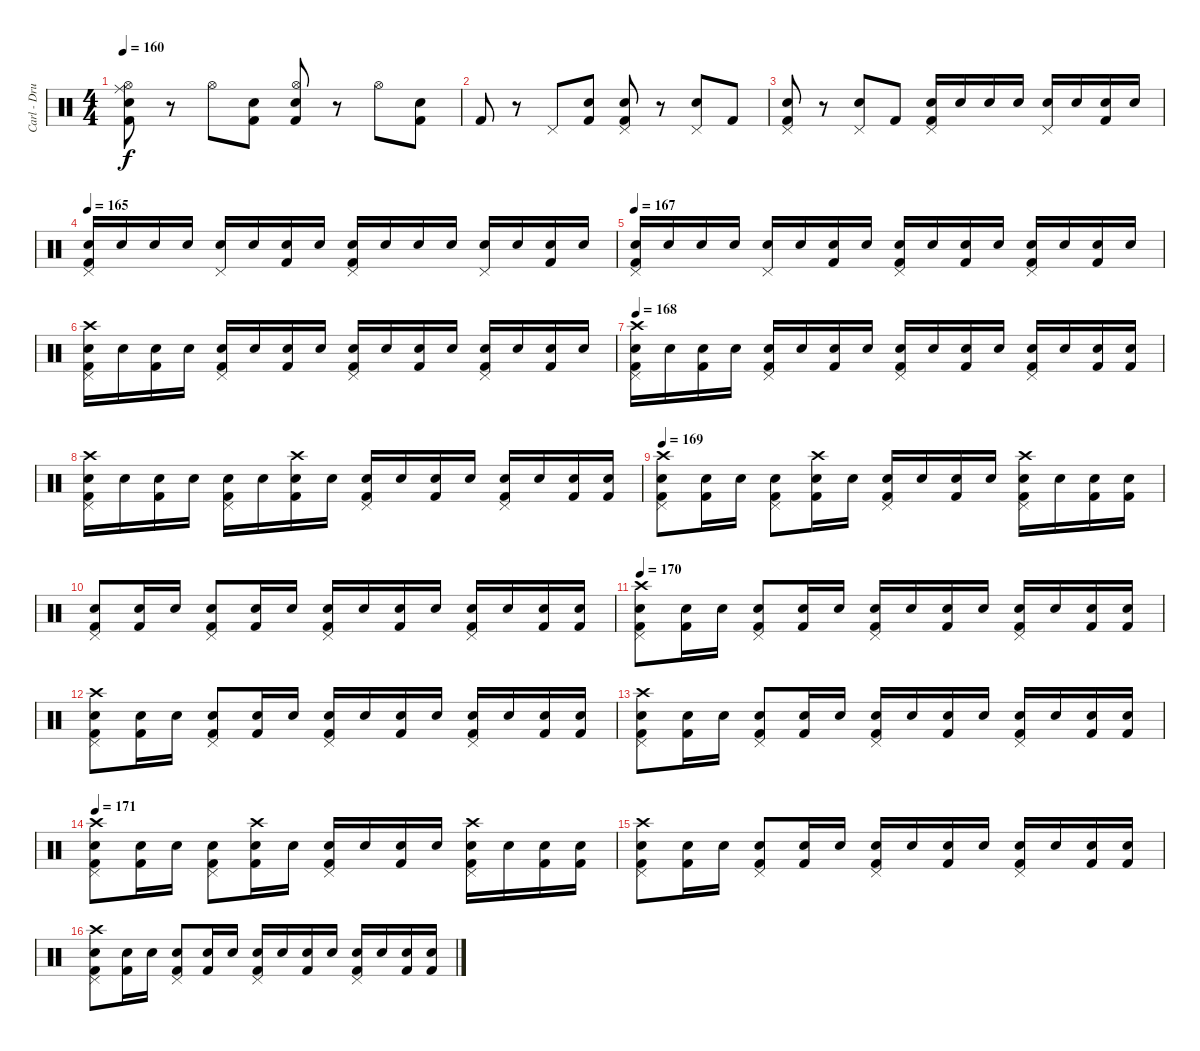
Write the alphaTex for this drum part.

\track ("Carl - Drums" "Carl - Dru") {instrument percussion}
\staff {score}
\articulation defaults
\ts (4 4)
\tempo 158
\tempo 160
\clef neutral
\ks c
("Electric Snare (hit)" "Hi-Hat (open)" "Kick (hit) 2" "Ride (middle)").8{dy f} r.8 "Hi-Hat (open)".8 ("Electric Snare (hit)" "Kick (hit) 2").8 ("Electric Snare (hit)" "Hi-Hat (open)" "Kick (hit) 2").8 r.8 "Hi-Hat (open)".8 ("Electric Snare (hit)" "Kick (hit) 2").8 |
"Kick (hit) 2".8 r.8 "Pedal Hi-Hat (hit)".8 ("Electric Snare (hit)" "Kick (hit) 2").8 ("Electric Snare (hit)" "Pedal Hi-Hat (hit)" "Kick (hit) 2").8 r.8 ("Electric Snare (hit)" "Pedal Hi-Hat (hit)").8 "Kick (hit) 2".8 |
("Electric Snare (hit)" "Pedal Hi-Hat (hit)" "Kick (hit) 2").8 r.8 ("Electric Snare (hit)" "Pedal Hi-Hat (hit)").8 "Kick (hit) 2".8 ("Electric Snare (hit)" "Pedal Hi-Hat (hit)" "Kick (hit) 2").16 "Electric Snare (hit)".16 "Electric Snare (hit)".16 "Electric Snare (hit)".16 ("Electric Snare (hit)" "Pedal Hi-Hat (hit)").16 "Electric Snare (hit)".16 ("Electric Snare (hit)" "Kick (hit) 2").16 "Electric Snare (hit)".16 |
\tempo 166
\tempo 165
("Electric Snare (hit)" "Pedal Hi-Hat (hit)" "Kick (hit) 2").16 "Electric Snare (hit)".16 "Electric Snare (hit)".16 "Electric Snare (hit)".16 ("Electric Snare (hit)" "Pedal Hi-Hat (hit)").16 "Electric Snare (hit)".16 ("Electric Snare (hit)" "Kick (hit) 2").16 "Electric Snare (hit)".16 ("Electric Snare (hit)" "Pedal Hi-Hat (hit)" "Kick (hit) 2").16 "Electric Snare (hit)".16 "Electric Snare (hit)".16 "Electric Snare (hit)".16 ("Electric Snare (hit)" "Pedal Hi-Hat (hit)").16 "Electric Snare (hit)".16 ("Electric Snare (hit)" "Kick (hit) 2").16 "Electric Snare (hit)".16 |
\tempo 167
("Electric Snare (hit)" "Pedal Hi-Hat (hit)" "Kick (hit) 2").16 "Electric Snare (hit)".16 "Electric Snare (hit)".16 "Electric Snare (hit)".16 ("Electric Snare (hit)" "Pedal Hi-Hat (hit)").16 "Electric Snare (hit)".16 ("Electric Snare (hit)" "Kick (hit) 2").16 "Electric Snare (hit)".16 ("Electric Snare (hit)" "Pedal Hi-Hat (hit)" "Kick (hit) 2").16 "Electric Snare (hit)".16 ("Electric Snare (hit)" "Kick (hit) 2").16 "Electric Snare (hit)".16 ("Electric Snare (hit)" "Pedal Hi-Hat (hit)" "Kick (hit) 2").16 "Electric Snare (hit)".16 ("Electric Snare (hit)" "Kick (hit) 2").16 "Electric Snare (hit)".16 |
("Electric Snare (hit)" "Pedal Hi-Hat (hit)" "Kick (hit) 2" "Crash high (hit)").16 "Electric Snare (hit)".16 ("Electric Snare (hit)" "Kick (hit) 2").16 "Electric Snare (hit)".16 ("Electric Snare (hit)" "Pedal Hi-Hat (hit)" "Kick (hit) 2").16 "Electric Snare (hit)".16 ("Electric Snare (hit)" "Kick (hit) 2").16 "Electric Snare (hit)".16 ("Electric Snare (hit)" "Pedal Hi-Hat (hit)" "Kick (hit) 2").16 "Electric Snare (hit)".16 ("Electric Snare (hit)" "Kick (hit) 2").16 "Electric Snare (hit)".16 ("Electric Snare (hit)" "Pedal Hi-Hat (hit)" "Kick (hit) 2").16 "Electric Snare (hit)".16 ("Electric Snare (hit)" "Kick (hit) 2").16 "Electric Snare (hit)".16 |
\tempo 168
("Electric Snare (hit)" "Pedal Hi-Hat (hit)" "Kick (hit) 2" "Crash high (hit)").16 "Electric Snare (hit)".16 ("Electric Snare (hit)" "Kick (hit) 2").16 "Electric Snare (hit)".16 ("Electric Snare (hit)" "Pedal Hi-Hat (hit)" "Kick (hit) 2").16 "Electric Snare (hit)".16 ("Electric Snare (hit)" "Kick (hit) 2").16 "Electric Snare (hit)".16 ("Electric Snare (hit)" "Pedal Hi-Hat (hit)" "Kick (hit) 2").16 "Electric Snare (hit)".16 ("Electric Snare (hit)" "Kick (hit) 2").16 "Electric Snare (hit)".16 ("Electric Snare (hit)" "Pedal Hi-Hat (hit)" "Kick (hit) 2").16 "Electric Snare (hit)".16 ("Electric Snare (hit)" "Kick (hit) 2").16 ("Electric Snare (hit)" "Kick (hit) 2").16 |
("Electric Snare (hit)" "Pedal Hi-Hat (hit)" "Kick (hit) 2" "Crash high (hit)").16 "Electric Snare (hit)".16 ("Electric Snare (hit)" "Kick (hit) 2").16 "Electric Snare (hit)".16 ("Electric Snare (hit)" "Pedal Hi-Hat (hit)" "Kick (hit) 2").16 "Electric Snare (hit)".16 ("Electric Snare (hit)" "Kick (hit) 2" "Crash high (hit)").16 "Electric Snare (hit)".16 ("Electric Snare (hit)" "Pedal Hi-Hat (hit)" "Kick (hit) 2").16 "Electric Snare (hit)".16 ("Electric Snare (hit)" "Kick (hit) 2").16 "Electric Snare (hit)".16 ("Electric Snare (hit)" "Pedal Hi-Hat (hit)" "Kick (hit) 2").16 "Electric Snare (hit)".16 ("Electric Snare (hit)" "Kick (hit) 2").16 ("Electric Snare (hit)" "Kick (hit) 2").16 |
\tempo 169
("Electric Snare (hit)" "Pedal Hi-Hat (hit)" "Kick (hit) 2" "Crash high (hit)").8 ("Electric Snare (hit)" "Kick (hit) 2").16 "Electric Snare (hit)".16 ("Electric Snare (hit)" "Pedal Hi-Hat (hit)" "Kick (hit) 2").8 ("Electric Snare (hit)" "Kick (hit) 2" "Crash high (hit)").16 "Electric Snare (hit)".16 ("Electric Snare (hit)" "Pedal Hi-Hat (hit)" "Kick (hit) 2").16 "Electric Snare (hit)".16 ("Electric Snare (hit)" "Kick (hit) 2").16 "Electric Snare (hit)".16 ("Electric Snare (hit)" "Pedal Hi-Hat (hit)" "Kick (hit) 2" "Crash high (hit)").16 "Electric Snare (hit)".16 ("Electric Snare (hit)" "Kick (hit) 2").16 ("Electric Snare (hit)" "Kick (hit) 2").16 |
("Electric Snare (hit)" "Pedal Hi-Hat (hit)" "Kick (hit) 2").8 ("Electric Snare (hit)" "Kick (hit) 2").16 "Electric Snare (hit)".16 ("Electric Snare (hit)" "Pedal Hi-Hat (hit)" "Kick (hit) 2").8 ("Electric Snare (hit)" "Kick (hit) 2").16 "Electric Snare (hit)".16 ("Electric Snare (hit)" "Pedal Hi-Hat (hit)" "Kick (hit) 2").16 "Electric Snare (hit)".16 ("Electric Snare (hit)" "Kick (hit) 2").16 "Electric Snare (hit)".16 ("Electric Snare (hit)" "Pedal Hi-Hat (hit)" "Kick (hit) 2").16 "Electric Snare (hit)".16 ("Electric Snare (hit)" "Kick (hit) 2").16 ("Electric Snare (hit)" "Kick (hit) 2").16 |
\tempo 170
("Electric Snare (hit)" "Pedal Hi-Hat (hit)" "Kick (hit) 2" "Crash high (hit)").8 ("Electric Snare (hit)" "Kick (hit) 2").16 "Electric Snare (hit)".16 ("Electric Snare (hit)" "Pedal Hi-Hat (hit)" "Kick (hit) 2").8 ("Electric Snare (hit)" "Kick (hit) 2").16 "Electric Snare (hit)".16 ("Electric Snare (hit)" "Pedal Hi-Hat (hit)" "Kick (hit) 2").16 "Electric Snare (hit)".16 ("Electric Snare (hit)" "Kick (hit) 2").16 "Electric Snare (hit)".16 ("Electric Snare (hit)" "Pedal Hi-Hat (hit)" "Kick (hit) 2").16 "Electric Snare (hit)".16 ("Electric Snare (hit)" "Kick (hit) 2").16 ("Electric Snare (hit)" "Kick (hit) 2").16 |
("Electric Snare (hit)" "Pedal Hi-Hat (hit)" "Kick (hit) 2" "Crash high (hit)").8 ("Electric Snare (hit)" "Kick (hit) 2").16 "Electric Snare (hit)".16 ("Electric Snare (hit)" "Pedal Hi-Hat (hit)" "Kick (hit) 2").8 ("Electric Snare (hit)" "Kick (hit) 2").16 "Electric Snare (hit)".16 ("Electric Snare (hit)" "Pedal Hi-Hat (hit)" "Kick (hit) 2").16 "Electric Snare (hit)".16 ("Electric Snare (hit)" "Kick (hit) 2").16 "Electric Snare (hit)".16 ("Electric Snare (hit)" "Pedal Hi-Hat (hit)" "Kick (hit) 2").16 "Electric Snare (hit)".16 ("Electric Snare (hit)" "Kick (hit) 2").16 ("Electric Snare (hit)" "Kick (hit) 2").16 |
("Electric Snare (hit)" "Pedal Hi-Hat (hit)" "Kick (hit) 2" "Crash high (hit)").8 ("Electric Snare (hit)" "Kick (hit) 2").16 "Electric Snare (hit)".16 ("Electric Snare (hit)" "Pedal Hi-Hat (hit)" "Kick (hit) 2").8 ("Electric Snare (hit)" "Kick (hit) 2").16 "Electric Snare (hit)".16 ("Electric Snare (hit)" "Pedal Hi-Hat (hit)" "Kick (hit) 2").16 "Electric Snare (hit)".16 ("Electric Snare (hit)" "Kick (hit) 2").16 "Electric Snare (hit)".16 ("Electric Snare (hit)" "Pedal Hi-Hat (hit)" "Kick (hit) 2").16 "Electric Snare (hit)".16 ("Electric Snare (hit)" "Kick (hit) 2").16 ("Electric Snare (hit)" "Kick (hit) 2").16 |
\tempo 171
("Electric Snare (hit)" "Pedal Hi-Hat (hit)" "Kick (hit) 2" "Crash high (hit)").8 ("Electric Snare (hit)" "Kick (hit) 2").16 "Electric Snare (hit)".16 ("Electric Snare (hit)" "Pedal Hi-Hat (hit)" "Kick (hit) 2").8 ("Electric Snare (hit)" "Kick (hit) 2" "Crash high (hit)").16 "Electric Snare (hit)".16 ("Electric Snare (hit)" "Pedal Hi-Hat (hit)" "Kick (hit) 2").16 "Electric Snare (hit)".16 ("Electric Snare (hit)" "Kick (hit) 2").16 "Electric Snare (hit)".16 ("Electric Snare (hit)" "Pedal Hi-Hat (hit)" "Kick (hit) 2" "Crash high (hit)").16 "Electric Snare (hit)".16 ("Electric Snare (hit)" "Kick (hit) 2").16 ("Electric Snare (hit)" "Kick (hit) 2").16 |
("Electric Snare (hit)" "Pedal Hi-Hat (hit)" "Kick (hit) 2" "Crash high (hit)").8 ("Electric Snare (hit)" "Kick (hit) 2").16 "Electric Snare (hit)".16 ("Electric Snare (hit)" "Pedal Hi-Hat (hit)" "Kick (hit) 2").8 ("Electric Snare (hit)" "Kick (hit) 2").16 "Electric Snare (hit)".16 ("Electric Snare (hit)" "Pedal Hi-Hat (hit)" "Kick (hit) 2").16 "Electric Snare (hit)".16 ("Electric Snare (hit)" "Kick (hit) 2").16 "Electric Snare (hit)".16 ("Electric Snare (hit)" "Pedal Hi-Hat (hit)" "Kick (hit) 2").16 "Electric Snare (hit)".16 ("Electric Snare (hit)" "Kick (hit) 2").16 ("Electric Snare (hit)" "Kick (hit) 2").16 |
("Electric Snare (hit)" "Pedal Hi-Hat (hit)" "Kick (hit) 2" "Crash high (hit)").8 ("Electric Snare (hit)" "Kick (hit) 2").16 "Electric Snare (hit)".16 ("Electric Snare (hit)" "Pedal Hi-Hat (hit)" "Kick (hit) 2").8 ("Electric Snare (hit)" "Kick (hit) 2").16 "Electric Snare (hit)".16 ("Electric Snare (hit)" "Pedal Hi-Hat (hit)" "Kick (hit) 2").16 "Electric Snare (hit)".16 ("Electric Snare (hit)" "Kick (hit) 2").16 "Electric Snare (hit)".16 ("Electric Snare (hit)" "Pedal Hi-Hat (hit)" "Kick (hit) 2").16 "Electric Snare (hit)".16 ("Electric Snare (hit)" "Kick (hit) 2").16 ("Electric Snare (hit)" "Kick (hit) 2").16
